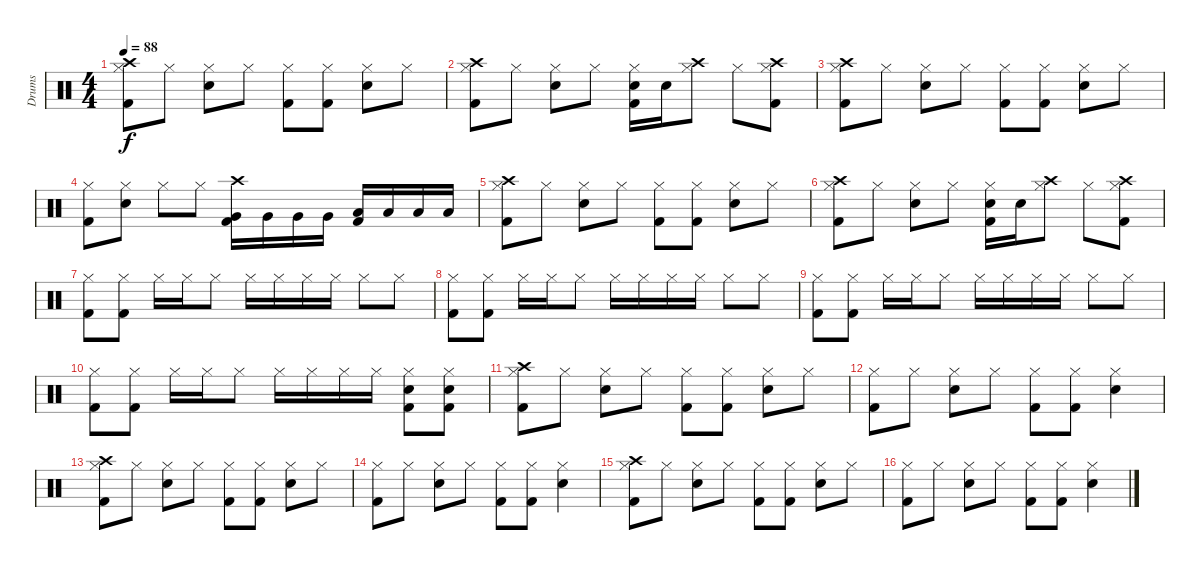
\track ("Drums" "Drums") {instrument percussion}
\staff {score}
\articulation defaults
\ts (4 4)
\tempo 88
\clef neutral
\ks c
("Crash high (hit)" "Hi-Hat (closed)" "Kick (hit) 2").8{dy f} "Hi-Hat (closed)".8 ("Hi-Hat (closed)" "Electric Snare (hit)").8 "Hi-Hat (closed)".8 ("Hi-Hat (closed)" "Kick (hit) 2").8 ("Hi-Hat (closed)" "Kick (hit) 2").8 ("Hi-Hat (closed)" "Electric Snare (hit)").8 "Hi-Hat (closed)".8 |
("Crash high (hit)" "Hi-Hat (closed)" "Kick (hit) 2").8 "Hi-Hat (closed)".8 ("Hi-Hat (closed)" "Electric Snare (hit)").8 "Hi-Hat (closed)".8 ("Hi-Hat (closed)" "Electric Snare (hit)" "Kick (hit) 2").16 "Electric Snare (hit)".16 ("Crash high (hit)" "Hi-Hat (closed)").8 "Hi-Hat (closed)".8 ("Crash high (hit)" "Hi-Hat (closed)" "Kick (hit) 2").8 |
("Crash high (hit)" "Hi-Hat (closed)" "Kick (hit) 2").8 "Hi-Hat (closed)".8 ("Hi-Hat (closed)" "Electric Snare (hit)").8 "Hi-Hat (closed)".8 ("Hi-Hat (closed)" "Kick (hit) 2").8 ("Hi-Hat (closed)" "Kick (hit) 2").8 ("Hi-Hat (closed)" "Electric Snare (hit)").8 "Hi-Hat (closed)".8 |
("Hi-Hat (closed)" "Kick (hit) 2").8 ("Hi-Hat (closed)" "Electric Snare (hit)").8 "Hi-Hat (closed)".8 "Hi-Hat (closed)".8 ("Crash high (hit)" "Very Low Tom (hit)" "Kick (hit) 2").16 "Very Low Tom (hit)".16 "Very Low Tom (hit)".16 "Very Low Tom (hit)".16 ("Low Tom (hit)" "Kick (hit) 2").16 "Low Tom (hit)".16 "Low Tom (hit)".16 "Low Tom (hit)".16 |
("Crash high (hit)" "Hi-Hat (closed)" "Kick (hit) 2").8 "Hi-Hat (closed)".8 ("Hi-Hat (closed)" "Electric Snare (hit)").8 "Hi-Hat (closed)".8 ("Hi-Hat (closed)" "Kick (hit) 2").8 ("Hi-Hat (closed)" "Kick (hit) 2").8 ("Hi-Hat (closed)" "Electric Snare (hit)").8 "Hi-Hat (closed)".8 |
("Crash high (hit)" "Hi-Hat (closed)" "Kick (hit) 2").8 "Hi-Hat (closed)".8 ("Hi-Hat (closed)" "Electric Snare (hit)").8 "Hi-Hat (closed)".8 ("Hi-Hat (closed)" "Electric Snare (hit)" "Kick (hit) 2").16 "Electric Snare (hit)".16 ("Crash high (hit)" "Hi-Hat (closed)").8 "Hi-Hat (closed)".8 ("Crash high (hit)" "Hi-Hat (closed)" "Kick (hit) 2").8 |
("Hi-Hat (closed)" "Kick (hit) 2").8 ("Hi-Hat (closed)" "Kick (hit) 2").8 "Hi-Hat (closed)".16 "Hi-Hat (closed)".16 "Hi-Hat (closed)".8 "Hi-Hat (closed)".16 "Hi-Hat (closed)".16 "Hi-Hat (closed)".16 "Hi-Hat (closed)".16 "Hi-Hat (closed)".8 "Hi-Hat (closed)".8 |
("Hi-Hat (closed)" "Kick (hit) 2").8 ("Hi-Hat (closed)" "Kick (hit) 2").8 "Hi-Hat (closed)".16 "Hi-Hat (closed)".16 "Hi-Hat (closed)".8 "Hi-Hat (closed)".16 "Hi-Hat (closed)".16 "Hi-Hat (closed)".16 "Hi-Hat (closed)".16 "Hi-Hat (closed)".8 "Hi-Hat (closed)".8 |
("Hi-Hat (closed)" "Kick (hit) 2").8 ("Hi-Hat (closed)" "Kick (hit) 2").8 "Hi-Hat (closed)".16 "Hi-Hat (closed)".16 "Hi-Hat (closed)".8 "Hi-Hat (closed)".16 "Hi-Hat (closed)".16 "Hi-Hat (closed)".16 "Hi-Hat (closed)".16 "Hi-Hat (closed)".8 "Hi-Hat (closed)".8 |
("Hi-Hat (closed)" "Kick (hit) 2").8 ("Hi-Hat (closed)" "Kick (hit) 2").8 "Hi-Hat (closed)".16 "Hi-Hat (closed)".16 "Hi-Hat (closed)".8 "Hi-Hat (closed)".16 "Hi-Hat (closed)".16 "Hi-Hat (closed)".16 "Hi-Hat (closed)".16 ("Hi-Hat (closed)" "Electric Snare (hit)" "Kick (hit) 2").8 ("Hi-Hat (closed)" "Electric Snare (hit)" "Kick (hit) 2").8 |
("Crash high (hit)" "Hi-Hat (closed)" "Kick (hit) 2").8 "Hi-Hat (closed)".8 ("Hi-Hat (closed)" "Electric Snare (hit)").8 "Hi-Hat (closed)".8 ("Hi-Hat (closed)" "Kick (hit) 2").8 ("Hi-Hat (closed)" "Kick (hit) 2").8 ("Hi-Hat (closed)" "Electric Snare (hit)").8 "Hi-Hat (closed)".8 |
("Hi-Hat (closed)" "Kick (hit) 2").8 "Hi-Hat (closed)".8 ("Hi-Hat (closed)" "Electric Snare (hit)").8 "Hi-Hat (closed)".8 ("Hi-Hat (closed)" "Kick (hit) 2").8 ("Hi-Hat (closed)" "Kick (hit) 2").8 ("Hi-Hat (closed)" "Electric Snare (hit)").4 |
("Crash high (hit)" "Hi-Hat (closed)" "Kick (hit) 2").8 "Hi-Hat (closed)".8 ("Hi-Hat (closed)" "Electric Snare (hit)").8 "Hi-Hat (closed)".8 ("Hi-Hat (closed)" "Kick (hit) 2").8 ("Hi-Hat (closed)" "Kick (hit) 2").8 ("Hi-Hat (closed)" "Electric Snare (hit)").8 "Hi-Hat (closed)".8 |
("Hi-Hat (closed)" "Kick (hit) 2").8 "Hi-Hat (closed)".8 ("Hi-Hat (closed)" "Electric Snare (hit)").8 "Hi-Hat (closed)".8 ("Hi-Hat (closed)" "Kick (hit) 2").8 ("Hi-Hat (closed)" "Kick (hit) 2").8 ("Hi-Hat (closed)" "Electric Snare (hit)").4 |
("Crash high (hit)" "Hi-Hat (closed)" "Kick (hit) 2").8 "Hi-Hat (closed)".8 ("Hi-Hat (closed)" "Electric Snare (hit)").8 "Hi-Hat (closed)".8 ("Hi-Hat (closed)" "Kick (hit) 2").8 ("Hi-Hat (closed)" "Kick (hit) 2").8 ("Hi-Hat (closed)" "Electric Snare (hit)").8 "Hi-Hat (closed)".8 |
("Hi-Hat (closed)" "Kick (hit) 2").8 "Hi-Hat (closed)".8 ("Hi-Hat (closed)" "Electric Snare (hit)").8 "Hi-Hat (closed)".8 ("Hi-Hat (closed)" "Kick (hit) 2").8 ("Hi-Hat (closed)" "Kick (hit) 2").8 ("Hi-Hat (closed)" "Electric Snare (hit)").4
